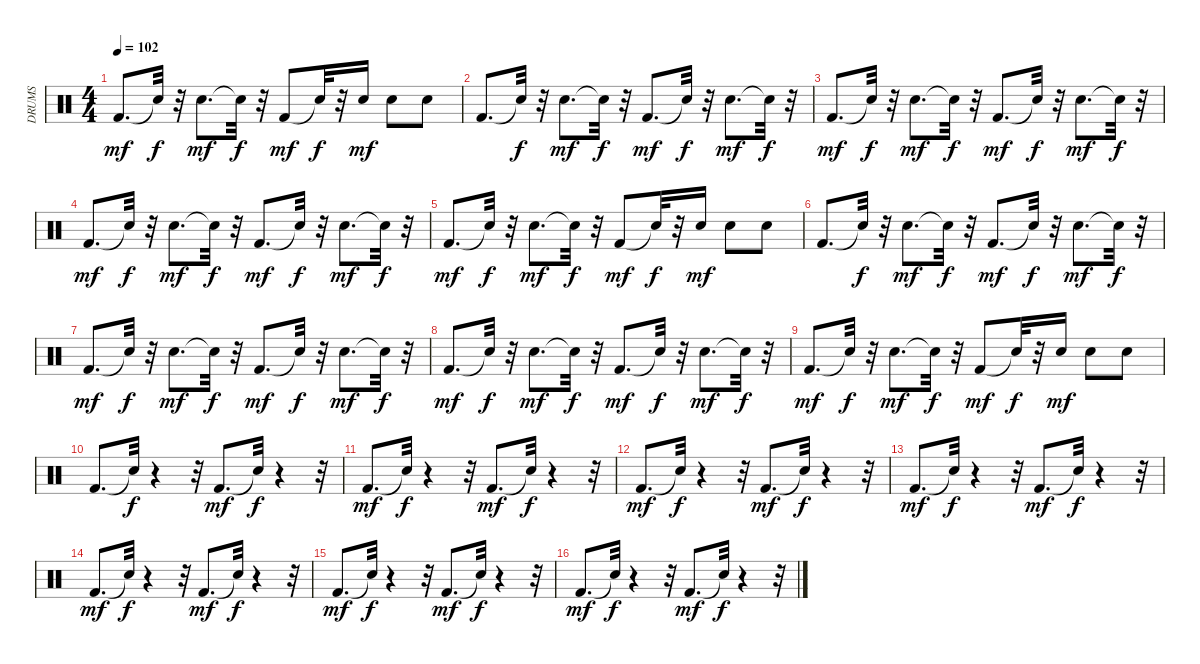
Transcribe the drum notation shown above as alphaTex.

\track ("DRUMS" "DRUMS") {instrument percussion}
\staff {score}
\articulation defaults
\ts (4 4)
\tempo 102
\clef neutral
\ks c "Kick (hit) 2".8{d dy mf} "Snare (hit)"{t}.32{dy f}
r.32 "Snare (hit) 2".8{d dy mf} "Snare (hit)"{t}.32{dy f} r.32 "Kick (hit) 2".8{dy mf} "Snare (hit)"{t}.32{dy f} r.32 "Snare (hit) 2".16{dy mf} "Snare (hit) 2".8 "Snare (hit) 2".8 |
"Kick (hit) 2".8{d} "Snare (hit)"{t}.32{dy f} r.32 "Snare (hit) 2".8{d dy mf} "Snare (hit)"{t}.32{dy f} r.32 "Kick (hit) 2".8{d dy mf} "Snare (hit)"{t}.32{dy f} r.32 "Snare (hit) 2".8{d dy mf} "Snare (hit)"{t}.32{dy f} r.32 |
"Kick (hit) 2".8{d dy mf} "Snare (hit)"{t}.32{dy f} r.32 "Snare (hit) 2".8{d dy mf} "Snare (hit)"{t}.32{dy f} r.32 "Kick (hit) 2".8{d dy mf} "Snare (hit)"{t}.32{dy f} r.32 "Snare (hit) 2".8{d dy mf} "Snare (hit)"{t}.32{dy f} r.32 |
"Kick (hit) 2".8{d dy mf} "Snare (hit)"{t}.32{dy f} r.32 "Snare (hit) 2".8{d dy mf} "Snare (hit)"{t}.32{dy f} r.32 "Kick (hit) 2".8{d dy mf} "Snare (hit)"{t}.32{dy f} r.32 "Snare (hit) 2".8{d dy mf} "Snare (hit)"{t}.32{dy f} r.32 |
"Kick (hit) 2".8{d dy mf} "Snare (hit)"{t}.32{dy f} r.32 "Snare (hit) 2".8{d dy mf} "Snare (hit)"{t}.32{dy f} r.32 "Kick (hit) 2".8{dy mf} "Snare (hit)"{t}.32{dy f} r.32 "Snare (hit) 2".16{dy mf} "Snare (hit) 2".8 "Snare (hit) 2".8 |
"Kick (hit) 2".8{d} "Snare (hit)"{t}.32{dy f} r.32 "Snare (hit) 2".8{d dy mf} "Snare (hit)"{t}.32{dy f} r.32 "Kick (hit) 2".8{d dy mf} "Snare (hit)"{t}.32{dy f} r.32 "Snare (hit) 2".8{d dy mf} "Snare (hit)"{t}.32{dy f} r.32 |
"Kick (hit) 2".8{d dy mf} "Snare (hit)"{t}.32{dy f} r.32 "Snare (hit) 2".8{d dy mf} "Snare (hit)"{t}.32{dy f} r.32 "Kick (hit) 2".8{d dy mf} "Snare (hit)"{t}.32{dy f} r.32 "Snare (hit) 2".8{d dy mf} "Snare (hit)"{t}.32{dy f} r.32 |
"Kick (hit) 2".8{d dy mf} "Snare (hit)"{t}.32{dy f} r.32 "Snare (hit) 2".8{d dy mf} "Snare (hit)"{t}.32{dy f} r.32 "Kick (hit) 2".8{d dy mf} "Snare (hit)"{t}.32{dy f} r.32 "Snare (hit) 2".8{d dy mf} "Snare (hit)"{t}.32{dy f} r.32 |
"Kick (hit) 2".8{d dy mf} "Snare (hit)"{t}.32{dy f} r.32 "Snare (hit) 2".8{d dy mf} "Snare (hit)"{t}.32{dy f} r.32 "Kick (hit) 2".8{dy mf} "Snare (hit)"{t}.32{dy f} r.32 "Snare (hit) 2".16{dy mf} "Snare (hit) 2".8 "Snare (hit) 2".8 |
"Kick (hit) 2".8{d} "Snare (hit)"{t}.32{dy f} r.4 r.32 "Kick (hit) 2".8{d dy mf} "Snare (hit)"{t}.32{dy f} r.4 r.32 |
"Kick (hit) 2".8{d dy mf} "Snare (hit)"{t}.32{dy f} r.4 r.32 "Kick (hit) 2".8{d dy mf} "Snare (hit)"{t}.32{dy f} r.4 r.32 |
"Kick (hit) 2".8{d dy mf} "Snare (hit)"{t}.32{dy f} r.4 r.32 "Kick (hit) 2".8{d dy mf} "Snare (hit)"{t}.32{dy f} r.4 r.32 |
"Kick (hit) 2".8{d dy mf} "Snare (hit)"{t}.32{dy f} r.4 r.32 "Kick (hit) 2".8{d dy mf} "Snare (hit)"{t}.32{dy f} r.4 r.32 |
"Kick (hit) 2".8{d dy mf} "Snare (hit)"{t}.32{dy f} r.4 r.32 "Kick (hit) 2".8{d dy mf} "Snare (hit)"{t}.32{dy f} r.4 r.32 |
"Kick (hit) 2".8{d dy mf} "Snare (hit)"{t}.32{dy f} r.4 r.32 "Kick (hit) 2".8{d dy mf} "Snare (hit)"{t}.32{dy f} r.4 r.32 |
"Kick (hit) 2".8{d dy mf} "Snare (hit)"{t}.32{dy f} r.4 r.32 "Kick (hit) 2".8{d dy mf} "Snare (hit)"{t}.32{dy f} r.4 r.32
